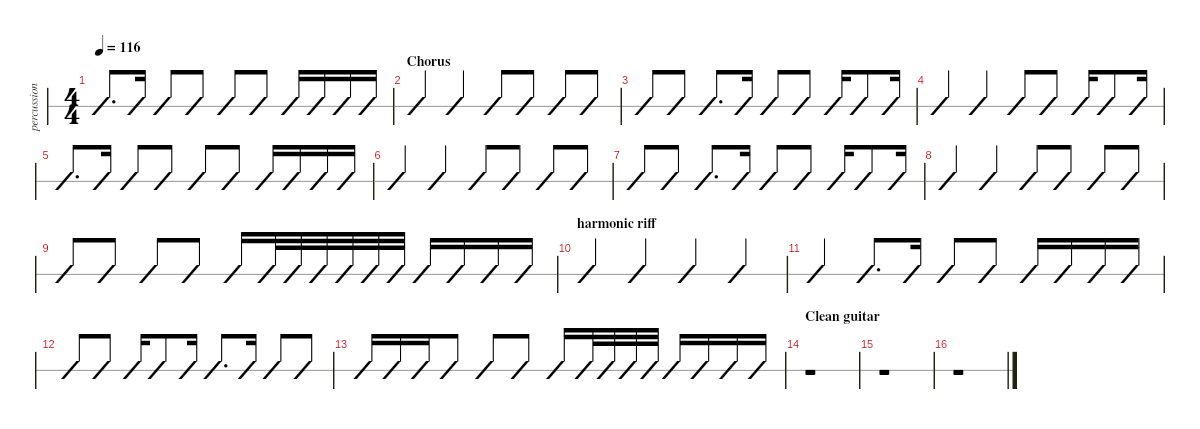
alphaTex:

\defaultSystemsLayout 4
\hideDynamics
\bracketExtendMode nobrackets
\track ("Drums" "percussion") {instrument percussion}
\staff {slash}
\articulation defaults
\voice
\ts (4 4)
\tempo 116
\clef neutral
\ks c
("Crash medium (hit)" "Kick (hit) 2").8{d dy f} "Kick (hit) 2".16 ("Crash medium (hit)" "Snare (hit) 2").8 ("Crash high (hit)" "Kick (hit) 2").8 "Crash medium (hit)".8 "Kick (hit) 2".8 ("China (hit)" "Snare (hit) 2").16 "Kick (hit) 2".16 "Snare (hit) 2".16 "Snare (hit) 2".16 |
\section ("" "Chorus")
("Crash high (hit)" "Kick (hit) 2").4 ("Crash high (hit)" "Snare (hit) 2").4 ("Crash high (hit)" "Kick (hit) 2").8 "Kick (hit) 2".8 ("Crash high (hit)" "Snare (hit) 2").8 "Kick (hit) 2".8 |
"Crash high (hit)".8 "Kick (hit) 2".8 ("Crash high (hit)" "Snare (hit) 2").8{d} "Snare (hit) 2".16 "Crash high (hit)".8 "Kick (hit) 2".8 ("Crash high (hit)" "Snare (hit) 2").16 "Kick (hit) 2".8 "Kick (hit) 2".16 |
("Crash high (hit)" "Kick (hit) 2").4 ("Crash high (hit)" "Snare (hit) 2").4 "Crash high (hit)".8 "Kick (hit) 2".8 ("Crash high (hit)" "Snare (hit) 2").16 "Kick (hit) 2".8 "Kick (hit) 2".16 |
("Crash high (hit)" "Kick (hit) 2").8{d} "Kick (hit) 2".16 ("Crash high (hit)" "Snare (hit) 2").8 ("Crash medium (hit)" "Kick (hit) 2").8 "Crash high (hit)".8 "Kick (hit) 2".8 ("Crash high (hit)" "Snare (hit) 2").16 "Kick (hit) 2".16 "Snare (hit) 2".16 "Snare (hit) 2".16 |
("Crash high (hit)" "Kick (hit) 2").4 ("Crash high (hit)" "Snare (hit) 2").4 ("Crash high (hit)" "Kick (hit) 2").8 "Kick (hit) 2".8 ("Crash high (hit)" "Snare (hit) 2").8 "Kick (hit) 2".8 |
"Crash high (hit)".8 "Kick (hit) 2".8 ("Crash high (hit)" "Snare (hit) 2").8{d} "Snare (hit) 2".16 "Crash high (hit)".8 "Kick (hit) 2".8 ("Crash high (hit)" "Snare (hit) 2").16 "Kick (hit) 2".8 "Kick (hit) 2".16 |
("Crash high (hit)" "Kick (hit) 2").4 ("Crash high (hit)" "Snare (hit) 2").4 "Crash high (hit)".8 "Kick (hit) 2".8 ("Crash high (hit)" "Snare (hit) 2").8 "Kick (hit) 2".8 |
"Crash high (hit)".8 "Kick (hit) 2".8 ("Crash high (hit)" "Snare (hit) 2").8 "Kick (hit) 2".8 ("Crash high (hit)" "Kick (hit) 2").16 "Snare (hit) 2".32 "Snare (hit) 2".32 "Snare (hit) 2".32 "Snare (hit) 2".32 "Low Tom (hit)".32 "Low Tom (hit)".32 "Very Low Tom (hit)".16 "Kick (hit) 2".16 "Low Floor Tom (hit)".16 "Low Floor Tom (hit)".16 |
\section ("" "harmonic riff")
("Crash medium (hit)" "Kick (hit) 2").4 ("Crash medium (hit)" "Kick (hit) 2" "Snare (hit) 2").4 ("Crash medium (hit)" "Kick (hit) 2").4 ("Crash medium (hit)" "Kick (hit) 2" "Snare (hit) 2").4 |
("Crash medium (hit)" "Kick (hit) 2").4 ("Crash medium (hit)" "Kick (hit) 2" "Snare (hit) 2").8{d} "Kick (hit) 2".16 ("Crash medium (hit)" "Kick (hit) 2").8 "Kick (hit) 2".8 ("Crash medium (hit)" "Snare (hit) 2").16 "Kick (hit) 2".16 "Snare (hit) 2".16 "Snare (hit) 2".16 |
("China (hit)" "Kick (hit) 2").8 "Kick (hit) 2".8 ("China (hit)" "Snare (hit) 2").16 "Kick (hit) 2".8 "Kick (hit) 2".16 "China (hit)".8{d} "Kick (hit) 2".16 ("China (hit)" "Snare (hit) 2").8 "Kick (hit) 2".8 |
("China (hit)" "Snare (hit) 2").16 "Kick (hit) 2".16 "Low Floor Tom (hit)".16 "Snare (hit) 2".8 ("Kick (hit) 2" "Hi-Hat (open)").8 ("Crash medium (hit)" "Kick (hit) 2").8 "Kick (hit) 2".16 "Very Low Tom (hit)".32 "Very Low Tom (hit)".32 "Low Floor Tom (hit)".32 "Low Floor Tom (hit)".32 "Snare (hit) 2".16 "Kick (hit) 2".16 "Snare (hit) 2".16 "Snare (hit) 2".16 |
\section ("" "Clean guitar ")
r.1 |
r.1 |
r.1
\voice
\clef neutral
\ottava regular
\simile none
\ks c
r.4{dy mf} r.4 r.4 r.4 |
r.4 r.4 r.4 r.4 |
r.4 r.4 r.4 r.4 |
r.4 r.4 r.4 r.4 |
r.4 r.4 r.4 r.4 |
r.4 r.4 r.4 r.4 |
r.4 r.4 r.4 r.4 |
r.4 r.4 r.4 r.4 |
r.4 r.4 r.4 r.4 |
r.4 r.4 r.4 r.4 |
r.4 r.4 r.4 r.4 |
r.4 r.4 r.4 r.4 |
r.4 r.4 r.4 r.4 |
r.4 r.4 r.4 r.4 |
r.4 r.4 r.4 r.4 |
r.4 r.4 r.4 r.4
